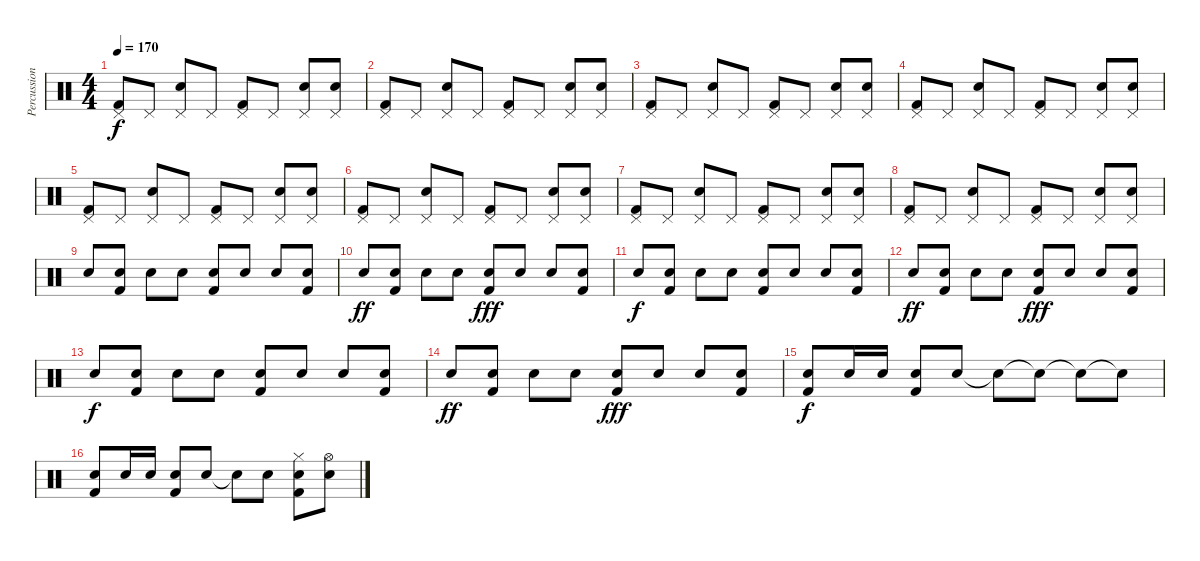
\track ("Percussions" "Percussion") {instrument percussion}
\staff {score}
\articulation defaults
\ts (4 4)
\tempo 170
\clef neutral
\ks c
("Pedal Hi-Hat (hit)" "Kick (hit) 2").8{dy f} "Pedal Hi-Hat (hit)".8 ("Pedal Hi-Hat (hit)" "Snare (hit) 2").8 "Pedal Hi-Hat (hit)".8 ("Pedal Hi-Hat (hit)" "Kick (hit) 2").8 "Pedal Hi-Hat (hit)".8 ("Pedal Hi-Hat (hit)" "Snare (hit) 2").8 ("Pedal Hi-Hat (hit)" "Snare (hit) 2").8 |
("Pedal Hi-Hat (hit)" "Kick (hit) 2").8 "Pedal Hi-Hat (hit)".8 ("Pedal Hi-Hat (hit)" "Snare (hit) 2").8 "Pedal Hi-Hat (hit)".8 ("Pedal Hi-Hat (hit)" "Kick (hit) 2").8 "Pedal Hi-Hat (hit)".8 ("Pedal Hi-Hat (hit)" "Snare (hit) 2").8 ("Pedal Hi-Hat (hit)" "Snare (hit) 2").8 |
("Pedal Hi-Hat (hit)" "Kick (hit) 2").8 "Pedal Hi-Hat (hit)".8 ("Pedal Hi-Hat (hit)" "Snare (hit) 2").8 "Pedal Hi-Hat (hit)".8 ("Pedal Hi-Hat (hit)" "Kick (hit) 2").8 "Pedal Hi-Hat (hit)".8 ("Pedal Hi-Hat (hit)" "Snare (hit) 2").8 ("Pedal Hi-Hat (hit)" "Snare (hit) 2").8 |
("Pedal Hi-Hat (hit)" "Kick (hit) 2").8 "Pedal Hi-Hat (hit)".8 ("Pedal Hi-Hat (hit)" "Snare (hit) 2").8 "Pedal Hi-Hat (hit)".8 ("Pedal Hi-Hat (hit)" "Kick (hit) 2").8 "Pedal Hi-Hat (hit)".8 ("Pedal Hi-Hat (hit)" "Snare (hit) 2").8 ("Pedal Hi-Hat (hit)" "Snare (hit) 2").8 |
("Pedal Hi-Hat (hit)" "Kick (hit) 2").8 "Pedal Hi-Hat (hit)".8 ("Pedal Hi-Hat (hit)" "Snare (hit) 2").8 "Pedal Hi-Hat (hit)".8 ("Pedal Hi-Hat (hit)" "Kick (hit) 2").8 "Pedal Hi-Hat (hit)".8 ("Pedal Hi-Hat (hit)" "Snare (hit) 2").8 ("Pedal Hi-Hat (hit)" "Snare (hit) 2").8 |
("Pedal Hi-Hat (hit)" "Kick (hit) 2").8 "Pedal Hi-Hat (hit)".8 ("Pedal Hi-Hat (hit)" "Snare (hit) 2").8 "Pedal Hi-Hat (hit)".8 ("Pedal Hi-Hat (hit)" "Kick (hit) 2").8 "Pedal Hi-Hat (hit)".8 ("Pedal Hi-Hat (hit)" "Snare (hit) 2").8 ("Pedal Hi-Hat (hit)" "Snare (hit) 2").8 |
("Pedal Hi-Hat (hit)" "Kick (hit) 2").8 "Pedal Hi-Hat (hit)".8 ("Pedal Hi-Hat (hit)" "Snare (hit) 2").8 "Pedal Hi-Hat (hit)".8 ("Pedal Hi-Hat (hit)" "Kick (hit) 2").8 "Pedal Hi-Hat (hit)".8 ("Pedal Hi-Hat (hit)" "Snare (hit) 2").8 ("Pedal Hi-Hat (hit)" "Snare (hit) 2").8 |
("Pedal Hi-Hat (hit)" "Kick (hit) 2").8 "Pedal Hi-Hat (hit)".8 ("Pedal Hi-Hat (hit)" "Snare (hit) 2").8 "Pedal Hi-Hat (hit)".8 ("Pedal Hi-Hat (hit)" "Kick (hit) 2").8 "Pedal Hi-Hat (hit)".8 ("Pedal Hi-Hat (hit)" "Snare (hit) 2").8 ("Pedal Hi-Hat (hit)" "Snare (hit) 2").8 |
"Snare (hit) 2".8 ("Snare (hit) 2" "Kick (hit) 2").8 "Snare (hit) 2".8 "Snare (hit) 2".8 ("Snare (hit) 2" "Kick (hit) 2").8 "Snare (hit) 2".8 "Snare (hit) 2".8 ("Snare (hit) 2" "Kick (hit) 2").8 |
"Snare (hit) 2".8{dy ff} ("Snare (hit) 2" "Kick (hit) 2").8 "Snare (hit) 2".8 "Snare (hit) 2".8 ("Snare (hit) 2" "Kick (hit) 2").8{dy fff} "Snare (hit) 2".8 "Snare (hit) 2".8 ("Snare (hit) 2" "Kick (hit) 2").8 |
"Snare (hit) 2".8{dy f} ("Snare (hit) 2" "Kick (hit) 2").8 "Snare (hit) 2".8 "Snare (hit) 2".8 ("Snare (hit) 2" "Kick (hit) 2").8 "Snare (hit) 2".8 "Snare (hit) 2".8 ("Snare (hit) 2" "Kick (hit) 2").8 |
"Snare (hit) 2".8{dy ff} ("Snare (hit) 2" "Kick (hit) 2").8 "Snare (hit) 2".8 "Snare (hit) 2".8 ("Snare (hit) 2" "Kick (hit) 2").8{dy fff} "Snare (hit) 2".8 "Snare (hit) 2".8 ("Snare (hit) 2" "Kick (hit) 2").8 |
"Snare (hit) 2".8{dy f} ("Snare (hit) 2" "Kick (hit) 2").8 "Snare (hit) 2".8 "Snare (hit) 2".8 ("Snare (hit) 2" "Kick (hit) 2").8 "Snare (hit) 2".8 "Snare (hit) 2".8 ("Snare (hit) 2" "Kick (hit) 2").8 |
"Snare (hit) 2".8{dy ff} ("Snare (hit) 2" "Kick (hit) 2").8 "Snare (hit) 2".8 "Snare (hit) 2".8 ("Snare (hit) 2" "Kick (hit) 2").8{dy fff} "Snare (hit) 2".8 "Snare (hit) 2".8 ("Snare (hit) 2" "Kick (hit) 2").8 |
("Snare (hit) 2" "Kick (hit) 2").8{dy f} "Snare (hit) 2".16 "Snare (hit) 2".16 ("Snare (hit) 2" "Kick (hit) 2").8 "Snare (hit) 2".8 "Snare (hit) 2"{t}.8 "Snare (hit)"{t}.8 "Snare (hit)"{t}.8 "Snare (hit) 2"{t}.8 |
("Snare (hit) 2" "Kick (hit) 2").8 "Snare (hit) 2".16 "Snare (hit) 2".16 ("Snare (hit) 2" "Kick (hit) 2").8 "Snare (hit) 2".8 "Snare (hit) 2"{t}.8 "Snare (hit) 2".8 ("Hi-Hat (closed)" "Snare (hit) 2" "Kick (hit) 2").8 ("Hi-Hat (open)" "Snare (hit) 2").8
